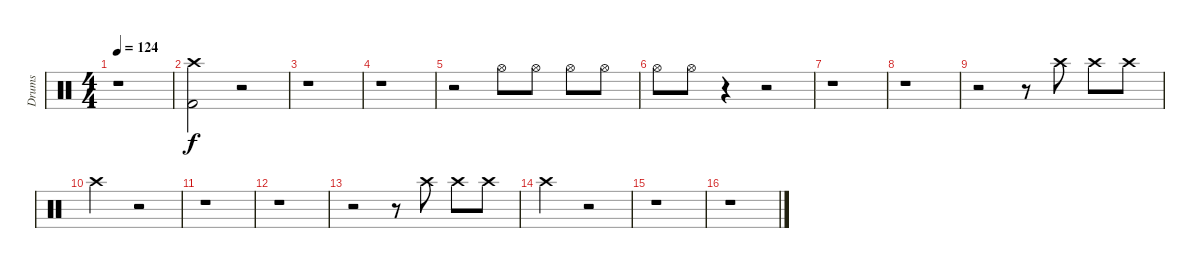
\track ("Drums" "Drums") {instrument percussion}
\staff {score}
\articulation defaults
\ts (4 4)
\tempo 124
\clef neutral
\ks c
r.1{dy f} |
("Kick (hit) 2" "Crash high (hit)").2 r.2 |
r.1 |
r.1 |
r.2{volume 7} "Hi-Hat (open)".8{volume 14} "Hi-Hat (open)".8 "Hi-Hat (open)".8 "Hi-Hat (open)".8 |
"Hi-Hat (open)".8 "Hi-Hat (open)".8 r.4 r.2 |
r.1 |
r.1 |
r.2{volume 8} r.8{volume 14} "Crash high (hit)".8 "Crash high (hit)".8 "Crash high (hit)".8 |
"Crash high (hit)".2 r.2 |
r.1 |
r.1 |
r.2{volume 7} r.8{volume 14} "Crash high (hit)".8 "Crash high (hit)".8 "Crash high (hit)".8 |
"Crash high (hit)".2 r.2 |
r.1 |
r.1{volume 3}
